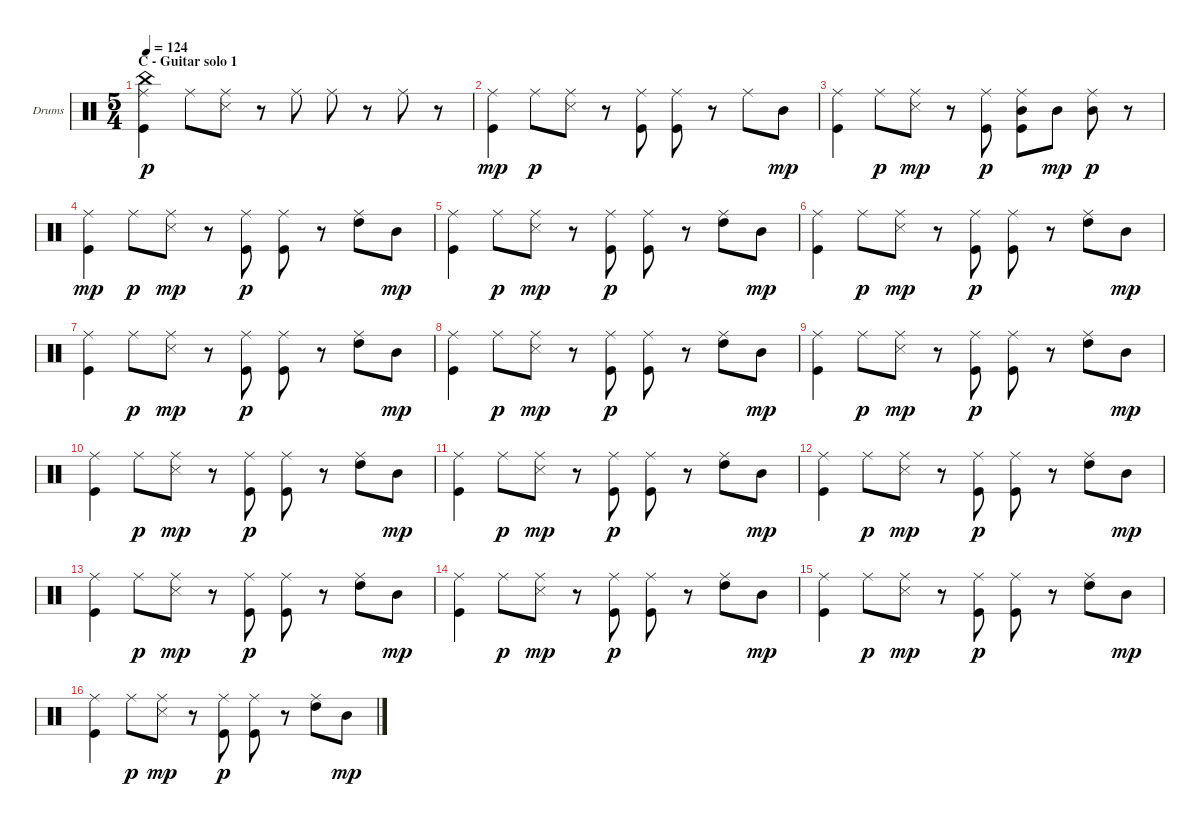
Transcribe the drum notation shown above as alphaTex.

\bracketExtendMode groupsimilarinstruments
\firstSystemTrackNameOrientation horizontal
\otherSystemsTrackNameOrientation horizontal
\track ("Drumkit" "Drums") {instrument percussion}
\staff {score}
\articulation defaults
\ts (5 4)
\section ("" "C - Guitar solo 1")
\tempo 124
\clef neutral
\ks aminor
("China (hit)" "Ride (middle)" "Kick (hit)").4{dy p} "Ride (middle)".8 ("Ride (middle)" "Snare (side stick) 3").8 r.8 "Ride (middle)".8 "Ride (middle)".8 r.8 "Ride (middle)".8 r.8 |
("Ride (middle)" "Kick (hit)").4{dy mp} "Ride (middle)".8{dy p} ("Ride (middle)" "Snare (side stick) 3").8 r.8 ("Ride (middle)" "Kick (hit)").8 ("Ride (middle)" "Kick (hit)").8 r.8 "Ride (middle)".8 "Mid Tom (hit)".8{dy mp} |
("Ride (middle)" "Kick (hit)").4 "Ride (middle)".8{dy p} ("Ride (middle)" "Snare (side stick) 3").8{dy mp} r.8 ("Ride (middle)" "Kick (hit)").8{dy p} ("Ride (middle)" "Mid Tom (hit)" "Kick (hit)").8 "Mid Tom (hit)".8{dy mp} ("Ride (middle)" "Mid Tom (hit)").8{dy p} r.8 |
("Ride (middle)" "Kick (hit)").4{dy mp} "Ride (middle)".8{dy p} ("Ride (middle)" "Snare (side stick) 3").8{dy mp} r.8 ("Ride (middle)" "Kick (hit)").8{dy p} ("Ride (middle)" "Kick (hit)").8 r.8 ("Ride (middle)" "High Tom (hit)").8 "Mid Tom (hit)".8{dy mp} |
("Ride (middle)" "Kick (hit)").4 "Ride (middle)".8{dy p} ("Ride (middle)" "Snare (side stick) 3").8{dy mp} r.8 ("Ride (middle)" "Kick (hit)").8{dy p} ("Ride (middle)" "Kick (hit)").8 r.8 ("Ride (middle)" "High Tom (hit)").8 "Mid Tom (hit)".8{dy mp} |
("Ride (middle)" "Kick (hit)").4 "Ride (middle)".8{dy p} ("Ride (middle)" "Snare (side stick) 3").8{dy mp} r.8 ("Ride (middle)" "Kick (hit)").8{dy p} ("Ride (middle)" "Kick (hit)").8 r.8 ("Ride (middle)" "High Tom (hit)").8 "Mid Tom (hit)".8{dy mp} |
("Ride (middle)" "Kick (hit)").4 "Ride (middle)".8{dy p} ("Ride (middle)" "Snare (side stick) 3").8{dy mp} r.8 ("Ride (middle)" "Kick (hit)").8{dy p} ("Ride (middle)" "Kick (hit)").8 r.8 ("Ride (middle)" "High Tom (hit)").8 "Mid Tom (hit)".8{dy mp} |
("Ride (middle)" "Kick (hit)").4 "Ride (middle)".8{dy p} ("Ride (middle)" "Snare (side stick) 3").8{dy mp} r.8 ("Ride (middle)" "Kick (hit)").8{dy p} ("Ride (middle)" "Kick (hit)").8 r.8 ("Ride (middle)" "High Tom (hit)").8 "Mid Tom (hit)".8{dy mp} |
("Ride (middle)" "Kick (hit)").4 "Ride (middle)".8{dy p} ("Ride (middle)" "Snare (side stick) 3").8{dy mp} r.8 ("Ride (middle)" "Kick (hit)").8{dy p} ("Ride (middle)" "Kick (hit)").8 r.8 ("Ride (middle)" "High Tom (hit)").8 "Mid Tom (hit)".8{dy mp} |
("Ride (middle)" "Kick (hit)").4 "Ride (middle)".8{dy p} ("Ride (middle)" "Snare (side stick) 3").8{dy mp} r.8 ("Ride (middle)" "Kick (hit)").8{dy p} ("Ride (middle)" "Kick (hit)").8 r.8 ("Ride (middle)" "High Tom (hit)").8 "Mid Tom (hit)".8{dy mp} |
("Ride (middle)" "Kick (hit)").4 "Ride (middle)".8{dy p} ("Ride (middle)" "Snare (side stick) 3").8{dy mp} r.8 ("Ride (middle)" "Kick (hit)").8{dy p} ("Ride (middle)" "Kick (hit)").8 r.8 ("Ride (middle)" "High Tom (hit)").8 "Mid Tom (hit)".8{dy mp} |
("Ride (middle)" "Kick (hit)").4 "Ride (middle)".8{dy p} ("Ride (middle)" "Snare (side stick) 3").8{dy mp} r.8 ("Ride (middle)" "Kick (hit)").8{dy p} ("Ride (middle)" "Kick (hit)").8 r.8 ("Ride (middle)" "High Tom (hit)").8 "Mid Tom (hit)".8{dy mp} |
("Ride (middle)" "Kick (hit)").4 "Ride (middle)".8{dy p} ("Ride (middle)" "Snare (side stick) 3").8{dy mp} r.8 ("Ride (middle)" "Kick (hit)").8{dy p} ("Ride (middle)" "Kick (hit)").8 r.8 ("Ride (middle)" "High Tom (hit)").8 "Mid Tom (hit)".8{dy mp} |
("Ride (middle)" "Kick (hit)").4 "Ride (middle)".8{dy p} ("Ride (middle)" "Snare (side stick) 3").8{dy mp} r.8 ("Ride (middle)" "Kick (hit)").8{dy p} ("Ride (middle)" "Kick (hit)").8 r.8 ("Ride (middle)" "High Tom (hit)").8 "Mid Tom (hit)".8{dy mp} |
("Ride (middle)" "Kick (hit)").4 "Ride (middle)".8{dy p} ("Ride (middle)" "Snare (side stick) 3").8{dy mp} r.8 ("Ride (middle)" "Kick (hit)").8{dy p} ("Ride (middle)" "Kick (hit)").8 r.8 ("Ride (middle)" "High Tom (hit)").8 "Mid Tom (hit)".8{dy mp} |
("Ride (middle)" "Kick (hit)").4 "Ride (middle)".8{dy p} ("Ride (middle)" "Snare (side stick) 3").8{dy mp} r.8 ("Ride (middle)" "Kick (hit)").8{dy p} ("Ride (middle)" "Kick (hit)").8 r.8 ("Ride (middle)" "High Tom (hit)").8 "Mid Tom (hit)".8{dy mp}
